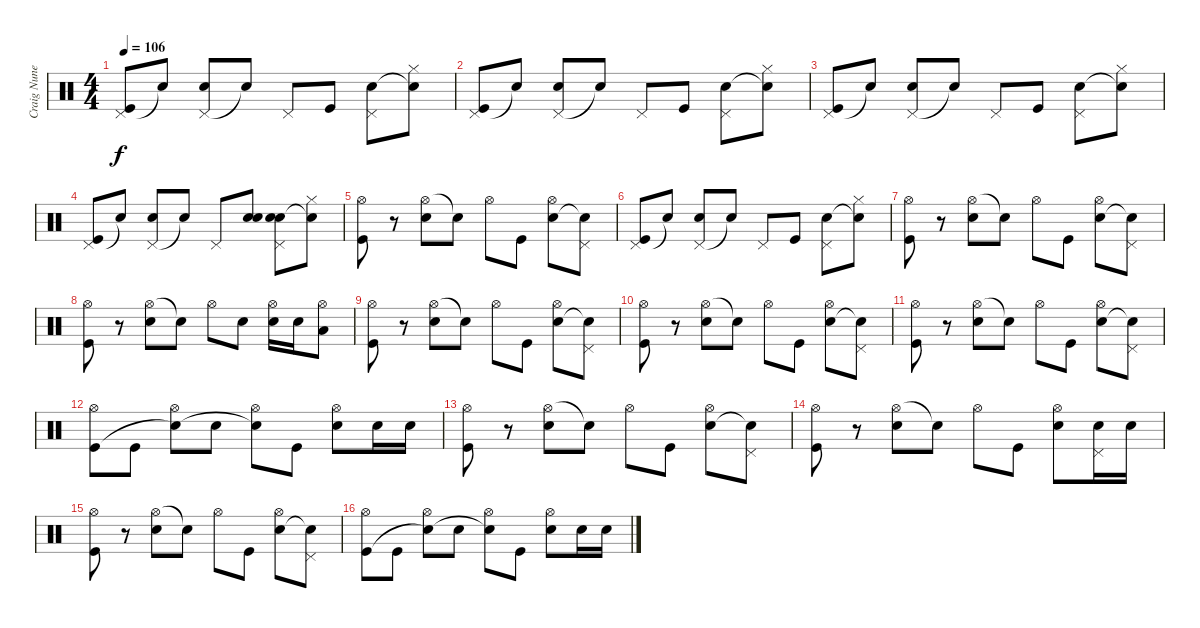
\track ("Craig Nunenmacher (Drums)" "Craig Nune") {instrument percussion}
\staff {score}
\articulation defaults
\ts (4 4)
\tempo 106
\clef neutral
\ks c
("Pedal Hi-Hat (hit)" "Kick (hit)").8{dy f} "Snare (hit)"{t}.8 ("Pedal Hi-Hat (hit)" "Electric Snare (hit)").8 "Snare (hit)"{t}.8 "Pedal Hi-Hat (hit)".8 "Kick (hit)".8 ("Pedal Hi-Hat (hit)" "Electric Snare (hit)").8 ("Hi-Hat (closed)" "Snare (hit)"{t}).8 |
("Pedal Hi-Hat (hit)" "Kick (hit)").8 "Snare (hit)"{t}.8 ("Pedal Hi-Hat (hit)" "Electric Snare (hit)").8 "Snare (hit)"{t}.8 "Pedal Hi-Hat (hit)".8 "Kick (hit)".8 ("Pedal Hi-Hat (hit)" "Electric Snare (hit)").8 ("Hi-Hat (closed)" "Snare (hit)"{t}).8 |
("Pedal Hi-Hat (hit)" "Kick (hit)").8 "Snare (hit)"{t}.8 ("Pedal Hi-Hat (hit)" "Electric Snare (hit)").8 "Snare (hit)"{t}.8 "Pedal Hi-Hat (hit)".8 "Kick (hit)".8 ("Pedal Hi-Hat (hit)" "Electric Snare (hit)").8 ("Hi-Hat (closed)" "Snare (hit)"{t}).8 |
("Pedal Hi-Hat (hit)" "Kick (hit)").8 "Snare (hit)"{t}.8 ("Pedal Hi-Hat (hit)" "Electric Snare (hit)").8 "Snare (hit)"{t}.8 "Pedal Hi-Hat (hit)".8 ("Electric Snare (hit)" "Electric Snare (hit)").8 ("Pedal Hi-Hat (hit)" "Electric Snare (hit)" "Electric Snare (hit)").8 ("Hi-Hat (closed)" "Snare (hit)"{t}).8 |
("Hi-Hat (open)" "Kick (hit)").8 r.8 ("Hi-Hat (open)" "Electric Snare (hit)").8 "Snare (hit)"{t}.8 "Hi-Hat (open)".8 "Kick (hit)".8 ("Hi-Hat (open)" "Electric Snare (hit)").8 ("Pedal Hi-Hat (hit)" "Snare (hit)"{t}).8 |
("Pedal Hi-Hat (hit)" "Kick (hit)").8 "Snare (hit)"{t}.8 ("Pedal Hi-Hat (hit)" "Electric Snare (hit)").8 "Snare (hit)"{t}.8 "Pedal Hi-Hat (hit)".8 "Kick (hit)".8 ("Pedal Hi-Hat (hit)" "Electric Snare (hit)").8 ("Hi-Hat (closed)" "Snare (hit)"{t}).8 |
("Hi-Hat (open)" "Kick (hit)").8 r.8 ("Hi-Hat (open)" "Electric Snare (hit)").8 "Snare (hit)"{t}.8 "Hi-Hat (open)".8 "Kick (hit)".8 ("Hi-Hat (open)" "Electric Snare (hit)").8 ("Pedal Hi-Hat (hit)" "Snare (hit)"{t}).8 |
("Hi-Hat (open)" "Kick (hit)").8 r.8 ("Hi-Hat (open)" "Electric Snare (hit)").8 "Snare (hit)"{t}.8 "Hi-Hat (open)".8 "Electric Snare (hit)".8 ("Hi-Hat (open)" "Electric Snare (hit)").16 "Electric Snare (hit)".16 ("Hi-Hat (open)" "Low Floor Tom (hit)").8 |
("Hi-Hat (open)" "Kick (hit)").8 r.8 ("Hi-Hat (open)" "Electric Snare (hit)").8 "Snare (hit)"{t}.8 "Hi-Hat (open)".8 "Kick (hit)".8 ("Hi-Hat (open)" "Electric Snare (hit)").8 ("Pedal Hi-Hat (hit)" "Snare (hit)"{t}).8 |
("Hi-Hat (open)" "Kick (hit)").8 r.8 ("Hi-Hat (open)" "Electric Snare (hit)").8 "Snare (hit)"{t}.8 "Hi-Hat (open)".8 "Kick (hit)".8 ("Hi-Hat (open)" "Electric Snare (hit)").8 ("Pedal Hi-Hat (hit)" "Snare (hit)"{t}).8 |
("Hi-Hat (open)" "Kick (hit)").8 r.8 ("Hi-Hat (open)" "Electric Snare (hit)").8 "Snare (hit)"{t}.8 "Hi-Hat (open)".8 "Kick (hit)".8 ("Hi-Hat (open)" "Electric Snare (hit)").8 ("Pedal Hi-Hat (hit)" "Snare (hit)"{t}).8 |
("Hi-Hat (open)" "Kick (hit)").8 "Kick (hit)".8 ("Hi-Hat (open)" "Snare (hit)"{t}).8 "Electric Snare (hit)".8 ("Hi-Hat (open)" "Snare (hit)"{t}).8 "Kick (hit)".8 ("Hi-Hat (open)" "Electric Snare (hit)").8 "Electric Snare (hit)".16 "Electric Snare (hit)".16 |
("Hi-Hat (open)" "Kick (hit)").8 r.8 ("Hi-Hat (open)" "Electric Snare (hit)").8 "Snare (hit)"{t}.8 "Hi-Hat (open)".8 "Kick (hit)".8 ("Hi-Hat (open)" "Electric Snare (hit)").8 ("Pedal Hi-Hat (hit)" "Snare (hit)"{t}).8 |
("Hi-Hat (open)" "Kick (hit)").8 r.8 ("Hi-Hat (open)" "Electric Snare (hit)").8 "Snare (hit)"{t}.8 "Hi-Hat (open)".8 "Kick (hit)".8 ("Hi-Hat (open)" "Electric Snare (hit)").8 ("Pedal Hi-Hat (hit)" "Electric Snare (hit)").16 "Electric Snare (hit)".16 |
("Hi-Hat (open)" "Kick (hit)").8 r.8 ("Hi-Hat (open)" "Electric Snare (hit)").8 "Snare (hit)"{t}.8 "Hi-Hat (open)".8 "Kick (hit)".8 ("Hi-Hat (open)" "Electric Snare (hit)").8 ("Pedal Hi-Hat (hit)" "Snare (hit)"{t}).8 |
("Hi-Hat (open)" "Kick (hit)").8 "Kick (hit)".8 ("Hi-Hat (open)" "Snare (hit)"{t}).8 "Electric Snare (hit)".8 ("Hi-Hat (open)" "Snare (hit)"{t}).8 "Kick (hit)".8 ("Hi-Hat (open)" "Electric Snare (hit)").8 "Electric Snare (hit)".16 "Electric Snare (hit)".16
